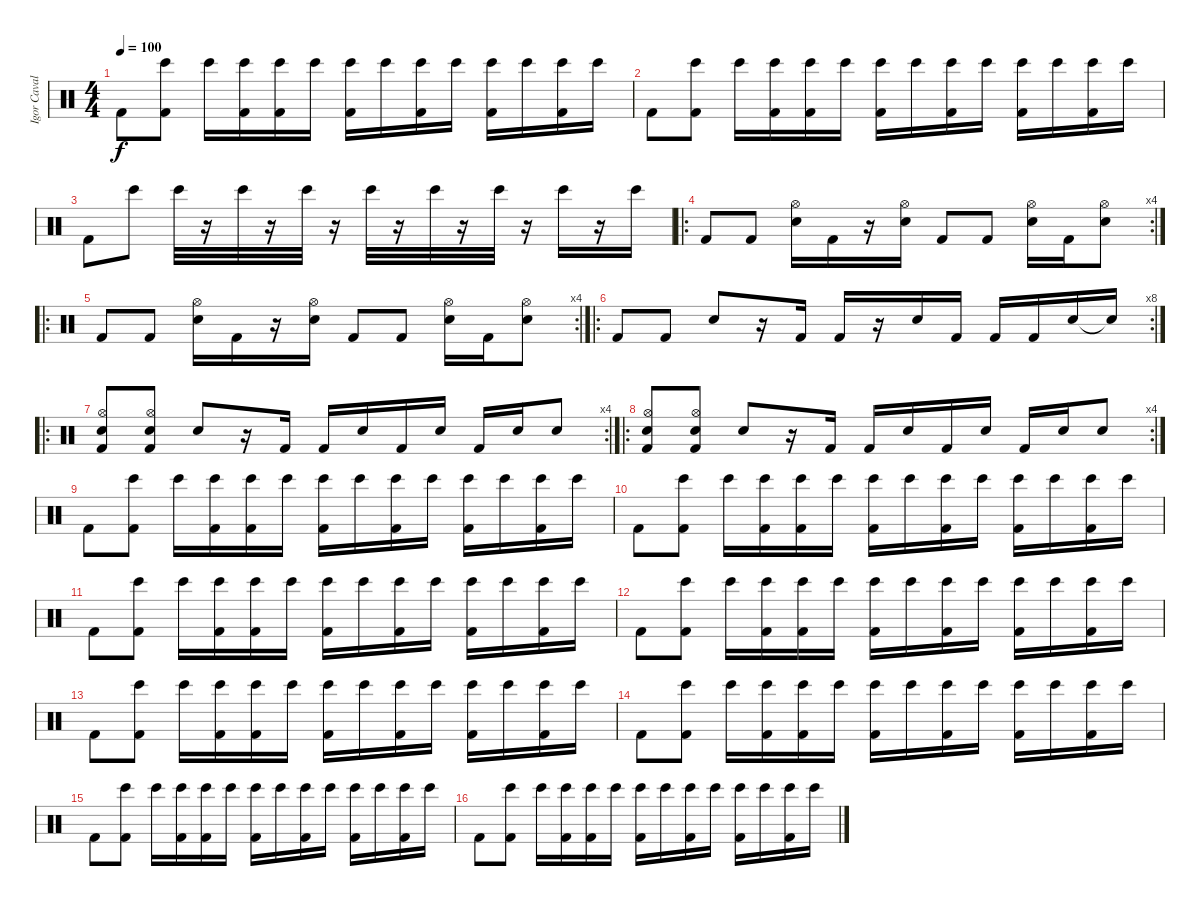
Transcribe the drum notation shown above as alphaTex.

\track ("Igor Cavalera" "Igor Caval") {instrument percussion}
\staff {score}
\articulation defaults
\ts (4 4)
\tempo 100
\clef neutral
\ks c "Kick (hit) 2".8{dy f}
("Bongo High (hit)" "Kick (hit) 2").8 "Bongo High (hit)".16 ("Bongo High (hit)" "Kick (hit) 2").16 ("Bongo High (hit)" "Kick (hit) 2").16 "Bongo High (hit)".16 ("Bongo High (hit)" "Kick (hit) 2").16 "Bongo High (hit)".16 ("Bongo High (hit)" "Kick (hit) 2").16 "Bongo High (hit)".16 ("Bongo High (hit)" "Kick (hit) 2").16 "Bongo High (hit)".16 ("Bongo High (hit)" "Kick (hit) 2").16 "Bongo High (hit)".16 |
"Kick (hit) 2".8 ("Bongo High (hit)" "Kick (hit) 2").8 "Bongo High (hit)".16 ("Bongo High (hit)" "Kick (hit) 2").16 ("Bongo High (hit)" "Kick (hit) 2").16 "Bongo High (hit)".16 ("Bongo High (hit)" "Kick (hit) 2").16 "Bongo High (hit)".16 ("Bongo High (hit)" "Kick (hit) 2").16 "Bongo High (hit)".16 ("Bongo High (hit)" "Kick (hit) 2").16 "Bongo High (hit)".16 ("Bongo High (hit)" "Kick (hit) 2").16 "Bongo High (hit)".16 |
"Kick (hit) 2".8 "Bongo High (hit)".8 "Bongo High (hit)".32 r.16 "Bongo High (hit)".32 r.16 "Bongo High (hit)".32 r.16 "Bongo High (hit)".32 r.16 "Bongo High (hit)".32 r.16 "Bongo High (hit)".32 r.16 "Bongo High (hit)".16 r.16 "Bongo High (hit)".16 |
\ro
\rc 4 "Kick (hit) 2".8 "Kick (hit) 2".8
("Hi-Hat (open)" "Snare (hit) 2").16 "Kick (hit) 2".16 r.16 ("Hi-Hat (open)" "Snare (hit) 2").16 "Kick (hit) 2".8 "Kick (hit) 2".8 ("Hi-Hat (open)" "Snare (hit) 2").16 "Kick (hit) 2".16 ("Hi-Hat (open)" "Snare (hit) 2").8 |
\ro
\rc 4 "Kick (hit) 2".8 "Kick (hit) 2".8
("Hi-Hat (open)" "Snare (hit) 2").16 "Kick (hit) 2".16 r.16 ("Hi-Hat (open)" "Snare (hit) 2").16 "Kick (hit) 2".8 "Kick (hit) 2".8 ("Hi-Hat (open)" "Snare (hit) 2").16 "Kick (hit) 2".16 ("Hi-Hat (open)" "Snare (hit) 2").8 |
\ro
\rc 8 "Kick (hit) 2".8 "Kick (hit) 2".8 "Snare (hit) 2".8
r.16 "Kick (hit) 2".16 "Kick (hit) 2".16 r.16 "Snare (hit) 2".16 "Kick (hit) 2".16 "Kick (hit) 2".16 "Kick (hit) 2".16 "Snare (hit) 2".16 "Snare (hit)"{t}.16 |
\ro
\rc 4
("Hi-Hat (open)" "Snare (hit) 2" "Kick (hit) 2").8 ("Hi-Hat (open)" "Snare (hit) 2" "Kick (hit) 2").8 "Snare (hit) 2".8 r.16 "Kick (hit) 2".16 "Kick (hit) 2".16 "Snare (hit) 2".16 "Kick (hit) 2".16 "Snare (hit) 2".16 "Kick (hit) 2".16 "Snare (hit) 2".16 "Snare (hit) 2".8 |
\ro
\rc 4
("Hi-Hat (open)" "Snare (hit) 2" "Kick (hit) 2").8 ("Hi-Hat (open)" "Snare (hit) 2" "Kick (hit) 2").8 "Snare (hit) 2".8 r.16 "Kick (hit) 2".16 "Kick (hit) 2".16 "Snare (hit) 2".16 "Kick (hit) 2".16 "Snare (hit) 2".16 "Kick (hit) 2".16 "Snare (hit) 2".16 "Snare (hit) 2".8 |
"Kick (hit) 2".8 ("Bongo High (hit)" "Kick (hit) 2").8 "Bongo High (hit)".16 ("Bongo High (hit)" "Kick (hit) 2").16 ("Bongo High (hit)" "Kick (hit) 2").16 "Bongo High (hit)".16 ("Bongo High (hit)" "Kick (hit) 2").16 "Bongo High (hit)".16 ("Bongo High (hit)" "Kick (hit) 2").16 "Bongo High (hit)".16 ("Bongo High (hit)" "Kick (hit) 2").16 "Bongo High (hit)".16 ("Bongo High (hit)" "Kick (hit) 2").16 "Bongo High (hit)".16 |
"Kick (hit) 2".8 ("Bongo High (hit)" "Kick (hit) 2").8 "Bongo High (hit)".16 ("Bongo High (hit)" "Kick (hit) 2").16 ("Bongo High (hit)" "Kick (hit) 2").16 "Bongo High (hit)".16 ("Bongo High (hit)" "Kick (hit) 2").16 "Bongo High (hit)".16 ("Bongo High (hit)" "Kick (hit) 2").16 "Bongo High (hit)".16 ("Bongo High (hit)" "Kick (hit) 2").16 "Bongo High (hit)".16 ("Bongo High (hit)" "Kick (hit) 2").16 "Bongo High (hit)".16 |
"Kick (hit) 2".8 ("Bongo High (hit)" "Kick (hit) 2").8 "Bongo High (hit)".16 ("Bongo High (hit)" "Kick (hit) 2").16 ("Bongo High (hit)" "Kick (hit) 2").16 "Bongo High (hit)".16 ("Bongo High (hit)" "Kick (hit) 2").16 "Bongo High (hit)".16 ("Bongo High (hit)" "Kick (hit) 2").16 "Bongo High (hit)".16 ("Bongo High (hit)" "Kick (hit) 2").16 "Bongo High (hit)".16 ("Bongo High (hit)" "Kick (hit) 2").16 "Bongo High (hit)".16 |
"Kick (hit) 2".8 ("Bongo High (hit)" "Kick (hit) 2").8 "Bongo High (hit)".16 ("Bongo High (hit)" "Kick (hit) 2").16 ("Bongo High (hit)" "Kick (hit) 2").16 "Bongo High (hit)".16 ("Bongo High (hit)" "Kick (hit) 2").16 "Bongo High (hit)".16 ("Bongo High (hit)" "Kick (hit) 2").16 "Bongo High (hit)".16 ("Bongo High (hit)" "Kick (hit) 2").16 "Bongo High (hit)".16 ("Bongo High (hit)" "Kick (hit) 2").16 "Bongo High (hit)".16 |
"Kick (hit) 2".8 ("Bongo High (hit)" "Kick (hit) 2").8 "Bongo High (hit)".16 ("Bongo High (hit)" "Kick (hit) 2").16 ("Bongo High (hit)" "Kick (hit) 2").16 "Bongo High (hit)".16 ("Bongo High (hit)" "Kick (hit) 2").16 "Bongo High (hit)".16 ("Bongo High (hit)" "Kick (hit) 2").16 "Bongo High (hit)".16 ("Bongo High (hit)" "Kick (hit) 2").16 "Bongo High (hit)".16 ("Bongo High (hit)" "Kick (hit) 2").16 "Bongo High (hit)".16 |
"Kick (hit) 2".8 ("Bongo High (hit)" "Kick (hit) 2").8 "Bongo High (hit)".16 ("Bongo High (hit)" "Kick (hit) 2").16 ("Bongo High (hit)" "Kick (hit) 2").16 "Bongo High (hit)".16 ("Bongo High (hit)" "Kick (hit) 2").16 "Bongo High (hit)".16 ("Bongo High (hit)" "Kick (hit) 2").16 "Bongo High (hit)".16 ("Bongo High (hit)" "Kick (hit) 2").16 "Bongo High (hit)".16 ("Bongo High (hit)" "Kick (hit) 2").16 "Bongo High (hit)".16 |
"Kick (hit) 2".8 ("Bongo High (hit)" "Kick (hit) 2").8 "Bongo High (hit)".16 ("Bongo High (hit)" "Kick (hit) 2").16 ("Bongo High (hit)" "Kick (hit) 2").16 "Bongo High (hit)".16 ("Bongo High (hit)" "Kick (hit) 2").16 "Bongo High (hit)".16 ("Bongo High (hit)" "Kick (hit) 2").16 "Bongo High (hit)".16 ("Bongo High (hit)" "Kick (hit) 2").16 "Bongo High (hit)".16 ("Bongo High (hit)" "Kick (hit) 2").16 "Bongo High (hit)".16 |
"Kick (hit) 2".8 ("Bongo High (hit)" "Kick (hit) 2").8 "Bongo High (hit)".16 ("Bongo High (hit)" "Kick (hit) 2").16 ("Bongo High (hit)" "Kick (hit) 2").16 "Bongo High (hit)".16 ("Bongo High (hit)" "Kick (hit) 2").16 "Bongo High (hit)".16 ("Bongo High (hit)" "Kick (hit) 2").16 "Bongo High (hit)".16 ("Bongo High (hit)" "Kick (hit) 2").16 "Bongo High (hit)".16 ("Bongo High (hit)" "Kick (hit) 2").16 "Bongo High (hit)".16
